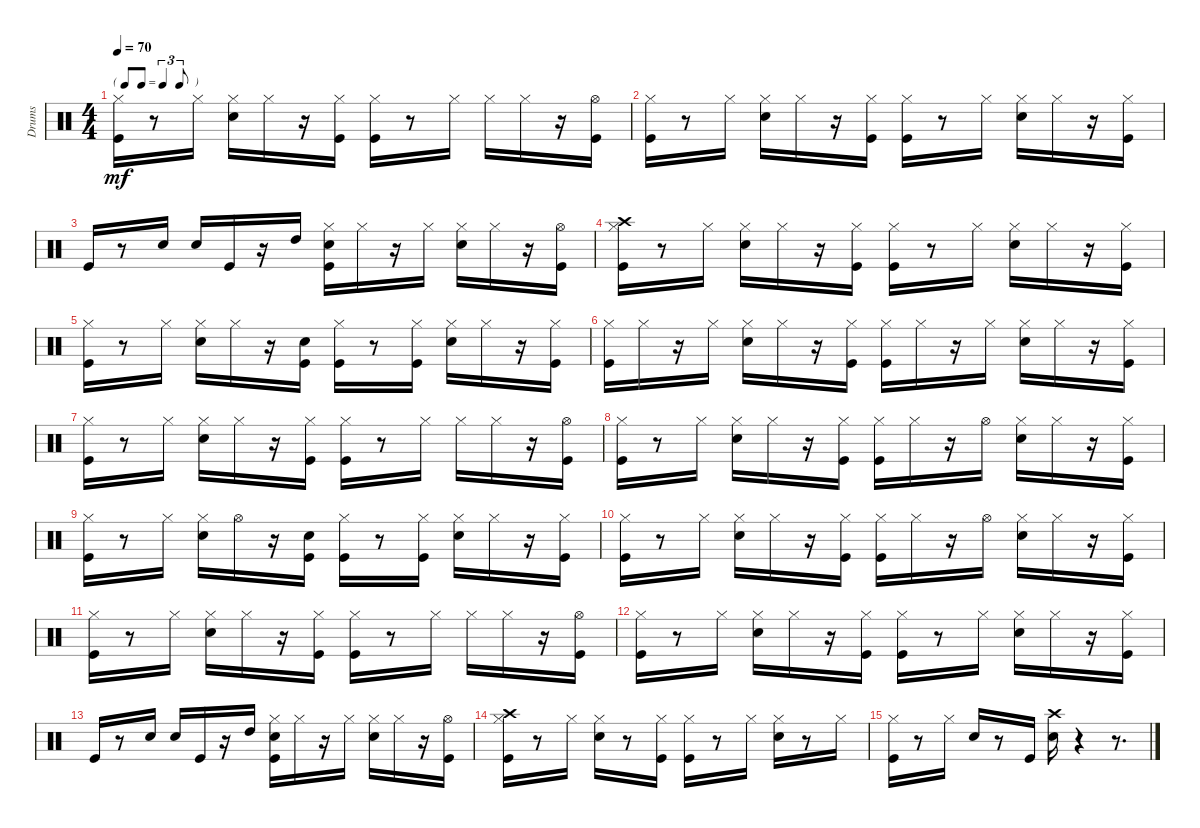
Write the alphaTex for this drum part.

\track ("Drums" "Drums") {instrument percussion}
\staff {score}
\articulation defaults
\ts (4 4)
\tf triplet8th
\tempo 70
\clef neutral
\ks c
("Kick (hit)" "Hi-Hat (closed)").16{dy mf} r.8 "Hi-Hat (closed)".16 ("Snare (hit) 2" "Hi-Hat (closed)").16 "Hi-Hat (closed)".16 r.16 ("Kick (hit)" "Hi-Hat (closed)").16 ("Kick (hit)" "Hi-Hat (closed)").16 r.8 "Hi-Hat (closed)".16 "Hi-Hat (closed)".16 "Hi-Hat (closed)".16 r.16 ("Kick (hit)" "Hi-Hat (open)").16 |
("Kick (hit)" "Hi-Hat (closed)").16 r.8 "Hi-Hat (closed)".16 ("Snare (hit) 2" "Hi-Hat (closed)").16 "Hi-Hat (closed)".16 r.16 ("Kick (hit)" "Hi-Hat (closed)").16 ("Kick (hit)" "Hi-Hat (closed)").16 r.8 "Hi-Hat (closed)".16 ("Snare (hit) 2" "Hi-Hat (closed)").16 "Hi-Hat (closed)".16 r.16 ("Kick (hit)" "Hi-Hat (closed)").16 |
"Kick (hit)".16 r.8 "Snare (hit) 2".16 "Snare (hit) 2".16 "Kick (hit)".16 r.16 "High Tom (hit)".16 ("Kick (hit)" "Snare (hit) 2" "Hi-Hat (closed)").16 "Hi-Hat (closed)".16 r.16 "Hi-Hat (closed)".16 ("Snare (hit) 2" "Hi-Hat (closed)").16 "Hi-Hat (closed)".16 r.16 ("Kick (hit)" "Hi-Hat (open)").16 |
("Kick (hit)" "Hi-Hat (closed)" "Crash high (hit)").16 r.8 "Hi-Hat (closed)".16 ("Snare (hit) 2" "Hi-Hat (closed)").16 "Hi-Hat (closed)".16 r.16 ("Kick (hit)" "Hi-Hat (closed)").16 ("Kick (hit)" "Hi-Hat (closed)").16 r.8 "Hi-Hat (closed)".16 ("Snare (hit) 2" "Hi-Hat (closed)").16 "Hi-Hat (closed)".16 r.16 ("Kick (hit)" "Hi-Hat (closed)").16 |
("Kick (hit)" "Hi-Hat (closed)").16 r.8 "Hi-Hat (closed)".16 ("Snare (hit) 2" "Hi-Hat (closed)").16 "Hi-Hat (closed)".16 r.16 ("Kick (hit)" "Snare (hit) 2").16 ("Kick (hit)" "Hi-Hat (closed)").16 r.8 ("Kick (hit)" "Hi-Hat (closed)").16 ("Snare (hit) 2" "Hi-Hat (closed)").16 "Hi-Hat (closed)".16 r.16 ("Kick (hit)" "Hi-Hat (closed)").16 |
("Kick (hit)" "Hi-Hat (closed)").16 "Hi-Hat (closed)".16 r.16 "Hi-Hat (closed)".16 ("Snare (hit) 2" "Hi-Hat (closed)").16 "Hi-Hat (closed)".16 r.16 ("Kick (hit)" "Hi-Hat (closed)").16 ("Kick (hit)" "Hi-Hat (closed)").16 "Hi-Hat (closed)".16 r.16 "Hi-Hat (closed)".16 ("Snare (hit) 2" "Hi-Hat (closed)").16 "Hi-Hat (closed)".16 r.16 ("Kick (hit)" "Hi-Hat (closed)").16 |
("Kick (hit)" "Hi-Hat (closed)").16 r.8 "Hi-Hat (closed)".16 ("Snare (hit) 2" "Hi-Hat (closed)").16 "Hi-Hat (closed)".16 r.16 ("Kick (hit)" "Hi-Hat (closed)").16 ("Kick (hit)" "Hi-Hat (closed)").16 r.8 "Hi-Hat (closed)".16 "Hi-Hat (closed)".16 "Hi-Hat (closed)".16 r.16 ("Kick (hit)" "Hi-Hat (open)").16 |
("Kick (hit)" "Hi-Hat (closed)").16 r.8 "Hi-Hat (closed)".16 ("Snare (hit) 2" "Hi-Hat (closed)").16 "Hi-Hat (closed)".16 r.16 ("Kick (hit)" "Hi-Hat (closed)").16 ("Kick (hit)" "Hi-Hat (closed)").16 "Hi-Hat (closed)".16 r.16 "Hi-Hat (open)".16 ("Snare (hit) 2" "Hi-Hat (closed)").16 "Hi-Hat (closed)".16 r.16 ("Kick (hit)" "Hi-Hat (closed)").16 |
("Kick (hit)" "Hi-Hat (closed)").16 r.8 "Hi-Hat (closed)".16 ("Snare (hit) 2" "Hi-Hat (closed)").16 "Hi-Hat (open)".16 r.16 ("Kick (hit)" "Snare (hit) 2").16 ("Kick (hit)" "Hi-Hat (closed)").16 r.8 ("Kick (hit)" "Hi-Hat (closed)").16 ("Snare (hit) 2" "Hi-Hat (closed)").16 "Hi-Hat (closed)".16 r.16 ("Kick (hit)" "Hi-Hat (closed)").16 |
("Kick (hit)" "Hi-Hat (closed)").16 r.8 "Hi-Hat (closed)".16 ("Snare (hit) 2" "Hi-Hat (closed)").16 "Hi-Hat (closed)".16 r.16 ("Kick (hit)" "Hi-Hat (closed)").16 ("Kick (hit)" "Hi-Hat (closed)").16 "Hi-Hat (closed)".16 r.16 "Hi-Hat (open)".16 ("Snare (hit) 2" "Hi-Hat (closed)").16 "Hi-Hat (closed)".16 r.16 ("Kick (hit)" "Hi-Hat (closed)").16 |
("Kick (hit)" "Hi-Hat (closed)").16 r.8 "Hi-Hat (closed)".16 ("Snare (hit) 2" "Hi-Hat (closed)").16 "Hi-Hat (closed)".16 r.16 ("Kick (hit)" "Hi-Hat (closed)").16 ("Kick (hit)" "Hi-Hat (closed)").16 r.8 "Hi-Hat (closed)".16 "Hi-Hat (closed)".16 "Hi-Hat (closed)".16 r.16 ("Kick (hit)" "Hi-Hat (open)").16 |
("Kick (hit)" "Hi-Hat (closed)").16 r.8 "Hi-Hat (closed)".16 ("Snare (hit) 2" "Hi-Hat (closed)").16 "Hi-Hat (closed)".16 r.16 ("Kick (hit)" "Hi-Hat (closed)").16 ("Kick (hit)" "Hi-Hat (closed)").16 r.8 "Hi-Hat (closed)".16 ("Snare (hit) 2" "Hi-Hat (closed)").16 "Hi-Hat (closed)".16 r.16 ("Kick (hit)" "Hi-Hat (closed)").16 |
"Kick (hit)".16 r.8 "Snare (hit) 2".16 "Snare (hit) 2".16 "Kick (hit)".16 r.16 "High Tom (hit)".16 ("Kick (hit)" "Snare (hit) 2" "Hi-Hat (closed)").16 "Hi-Hat (closed)".16 r.16 "Hi-Hat (closed)".16 ("Snare (hit) 2" "Hi-Hat (closed)").16 "Hi-Hat (closed)".16 r.16 ("Kick (hit)" "Hi-Hat (open)").16 |
("Kick (hit)" "Hi-Hat (closed)" "Crash high (hit)").16 r.8 "Hi-Hat (closed)".16 ("Snare (hit) 2" "Hi-Hat (closed)").16 r.8 ("Kick (hit)" "Hi-Hat (closed)").16 ("Kick (hit)" "Hi-Hat (closed)").16 r.8 "Hi-Hat (closed)".16 ("Snare (hit) 2" "Hi-Hat (closed)").16 r.8 "Hi-Hat (closed)".16 |
("Kick (hit)" "Hi-Hat (closed)").16 r.8 "Hi-Hat (closed)".16 "Snare (hit) 2".16 r.8 "Kick (hit)".16 ("Snare (hit) 2" "Crash high (hit)").16 r.4 r.8{d}
